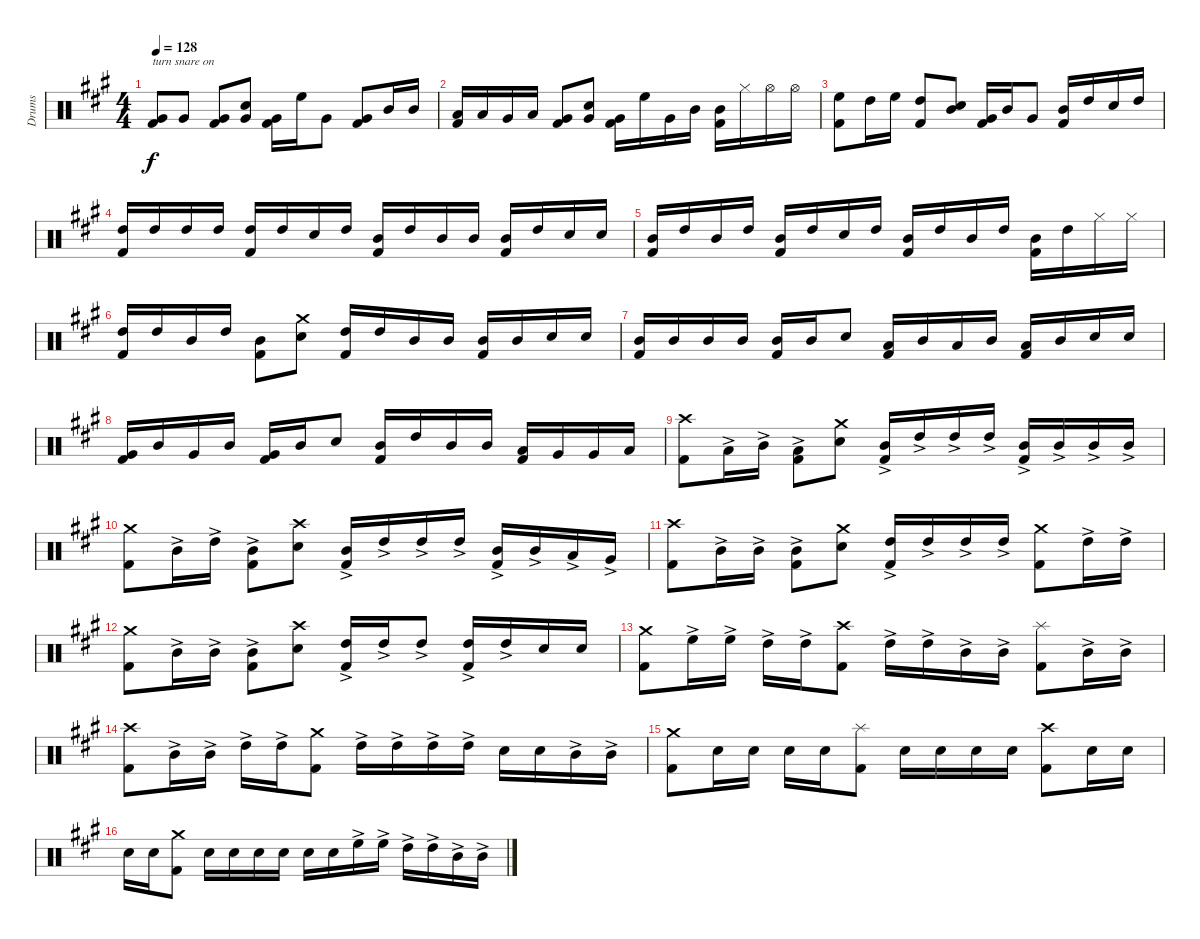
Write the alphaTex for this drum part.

\defaultSystemsLayout 4
\bracketExtendMode groupsimilarinstruments
\otherSystemsTrackNameOrientation horizontal
\track ("Drumkit" "Drums") {multiBarRest instrument percussion}
\staff {score}
\articulation defaults
\ts (4 4)
\tempo 128
\clef neutral
\ks a
("Very Low Tom (hit)"{acc forcenatural} "Kick (hit) 2"{acc forcenatural}).8{txt "turn snare on" dy f} "Very Low Tom (hit)"{acc forcenatural}.8 ("Very Low Tom (hit)"{acc forcenatural} "Kick (hit) 2"{acc forcenatural}).8 ("Very Low Tom (hit)"{acc forcenatural} "Snare (hit) 2"{acc forcenatural}).8 ("Kick (hit) 2"{acc forcenatural} "Very Low Tom (hit)"{acc forcenatural}).16 "High Floor Tom (hit)"{acc forcenatural}.16 "Very Low Tom (hit)"{acc forcenatural}.8 ("Very Low Tom (hit)"{acc forcenatural} "Kick (hit) 2"{acc forcenatural}).8 "Mid Tom (hit)"{acc forcenatural}.16 "Mid Tom (hit)"{acc forcenatural}.16 |
("Low Tom (hit)"{acc forcenatural} "Kick (hit) 2"{acc forcenatural}).16 "Low Tom (hit)"{acc forcenatural}.16 "Very Low Tom (hit)"{acc forcenatural}.16 "Low Tom (hit)"{acc forcenatural}.16 ("Very Low Tom (hit)"{acc forcenatural} "Kick (hit) 2"{acc forcenatural}).8 ("Snare (hit) 2"{acc forcenatural} "Very Low Tom (hit)"{acc forcenatural}).8 ("Very Low Tom (hit)"{acc forcenatural} "Kick (hit) 2"{acc forcenatural}).16 "High Floor Tom (hit)"{acc forcenatural}.16 "Very Low Tom (hit)"{acc forcenatural}.16 "Mid Tom (hit)"{acc forcenatural}.16 ("Mid Tom (hit)"{acc forcenatural} "Kick (hit) 2"{acc forcenatural}).16 "Hi-Hat (closed)"{acc forcenatural}.16 "Hi-Hat (open)"{acc forcenatural}.16 "Hi-Hat (open)"{acc forcenatural}.16 |
("High Floor Tom (hit)"{acc forcenatural} "Kick (hit) 2"{acc forcenatural}).8 "High Tom (hit)"{acc forcenatural}.16 "High Floor Tom (hit)"{acc forcenatural}.16 ("High Tom (hit)"{acc forcenatural} "Kick (hit) 2"{acc forcenatural}).8 ("Snare (hit) 2"{acc forcenatural} "Mid Tom (hit)"{acc forcenatural}).8 ("Very Low Tom (hit)"{acc forcenatural} "Kick (hit) 2"{acc forcenatural}).16 "Mid Tom (hit)"{acc forcenatural}.16 "Very Low Tom (hit)"{acc forcenatural}.8 ("Mid Tom (hit)"{acc forcenatural} "Kick (hit) 2"{acc forcenatural}).16 "High Tom (hit)"{acc forcenatural}.16 "Snare (hit) 2"{acc forcenatural}.16 "High Tom (hit)"{acc forcenatural}.16 |
("High Tom (hit)"{acc forcenatural} "Kick (hit) 2"{acc forcenatural}).16 "High Tom (hit)"{acc forcenatural}.16 "High Tom (hit)"{acc forcenatural}.16 "High Tom (hit)"{acc forcenatural}.16 ("High Tom (hit)"{acc forcenatural} "Kick (hit) 2"{acc forcenatural}).16 "High Tom (hit)"{acc forcenatural}.16 "Snare (hit) 2"{acc forcenatural}.16 "High Tom (hit)"{acc forcenatural}.16 ("Mid Tom (hit)"{acc forcenatural} "Kick (hit) 2"{acc forcenatural}).16 "High Tom (hit)"{acc forcenatural}.16 "Mid Tom (hit)"{acc forcenatural}.16 "Mid Tom (hit)"{acc forcenatural}.16 ("Mid Tom (hit)"{acc forcenatural} "Kick (hit) 2"{acc forcenatural}).16 "High Tom (hit)"{acc forcenatural}.16 "Snare (hit) 2"{acc forcenatural}.16 "Snare (hit) 2"{acc forcenatural}.16 |
("Mid Tom (hit)"{acc forcenatural} "Kick (hit) 2"{acc forcenatural}).16 "High Tom (hit)"{acc forcenatural}.16 "Mid Tom (hit)"{acc forcenatural}.16 "High Tom (hit)"{acc forcenatural}.16 ("Mid Tom (hit)"{acc forcenatural} "Kick (hit) 2"{acc forcenatural}).16 "High Tom (hit)"{acc forcenatural}.16 "Snare (hit) 2"{acc forcenatural}.16 "High Tom (hit)"{acc forcenatural}.16 ("Mid Tom (hit)"{acc forcenatural} "Kick (hit) 2"{acc forcenatural}).16 "High Tom (hit)"{acc forcenatural}.16 "Mid Tom (hit)"{acc forcenatural}.16 "High Tom (hit)"{acc forcenatural}.16 ("Mid Tom (hit)"{acc forcenatural} "Kick (hit) 2"{acc forcenatural}).16 "High Tom (hit)"{acc forcenatural}.16 "Hi-Hat (closed)"{acc forcenatural}.16 "Hi-Hat (closed)"{acc forcenatural}.16 |
("High Tom (hit)"{acc forcenatural} "Kick (hit) 2"{acc forcenatural}).16 "High Tom (hit)"{acc forcenatural}.16 "Mid Tom (hit)"{acc forcenatural}.16 "High Tom (hit)"{acc forcenatural}.16 ("Mid Tom (hit)"{acc forcenatural} "Kick (hit) 2"{acc forcenatural}).8 ("Snare (hit) 2"{acc forcenatural} "Crash medium (hit)"{acc forcenatural}).8 ("High Tom (hit)"{acc forcenatural} "Kick (hit) 2"{acc forcenatural}).16 "High Tom (hit)"{acc forcenatural}.16 "Mid Tom (hit)"{acc forcenatural}.16 "Mid Tom (hit)"{acc forcenatural}.16 ("Mid Tom (hit)"{acc forcenatural} "Kick (hit) 2"{acc forcenatural}).16 "Mid Tom (hit)"{acc forcenatural}.16 "Snare (hit) 2"{acc forcenatural}.16 "Snare (hit) 2"{acc forcenatural}.16 |
("Mid Tom (hit)"{acc forcenatural} "Kick (hit) 2"{acc forcenatural}).16 "Mid Tom (hit)"{acc forcenatural}.16 "Mid Tom (hit)"{acc forcenatural}.16 "Mid Tom (hit)"{acc forcenatural}.16 ("Mid Tom (hit)"{acc forcenatural} "Kick (hit) 2"{acc forcenatural}).16 "Mid Tom (hit)"{acc forcenatural}.16 "Snare (hit) 2"{acc forcenatural}.8 ("Low Tom (hit)"{acc forcenatural} "Kick (hit) 2"{acc forcenatural}).16 "Mid Tom (hit)"{acc forcenatural}.16 "Low Tom (hit)"{acc forcenatural}.16 "Mid Tom (hit)"{acc forcenatural}.16 ("Low Tom (hit)"{acc forcenatural} "Kick (hit) 2"{acc forcenatural}).16 "Mid Tom (hit)"{acc forcenatural}.16 "Snare (hit) 2"{acc forcenatural}.16 "Snare (hit) 2"{acc forcenatural}.16 |
("Very Low Tom (hit)"{acc forcenatural} "Kick (hit) 2"{acc forcenatural}).16 "Mid Tom (hit)"{acc forcenatural}.16 "Very Low Tom (hit)"{acc forcenatural}.16 "Mid Tom (hit)"{acc forcenatural}.16 ("Very Low Tom (hit)"{acc forcenatural} "Kick (hit) 2"{acc forcenatural}).16 "Mid Tom (hit)"{acc forcenatural}.16 "Snare (hit) 2"{acc forcenatural}.8 ("Mid Tom (hit)"{acc forcenatural} "Kick (hit) 2"{acc forcenatural}).16 "High Tom (hit)"{acc forcenatural}.16 "Mid Tom (hit)"{acc forcenatural}.16 "Mid Tom (hit)"{acc forcenatural}.16 ("Low Tom (hit)"{acc forcenatural} "Kick (hit) 2"{acc forcenatural}).16 "Very Low Tom (hit)"{acc forcenatural}.16 "Very Low Tom (hit)"{acc forcenatural}.16 "Low Tom (hit)"{acc forcenatural}.16 |
("Crash high (hit)"{acc forcenatural} "Kick (hit) 2"{acc forcenatural}).8 "Low Tom (hit)"{ac acc forcenatural}.16 "Mid Tom (hit)"{ac acc forcenatural}.16 ("Low Tom (hit)"{ac acc forcenatural} "Kick (hit) 2"{acc forcenatural}).8 ("Snare (hit) 2"{acc forcenatural} "Crash medium (hit)"{acc forcenatural}).8 ("Mid Tom (hit)"{ac acc forcenatural} "Kick (hit) 2"{acc forcenatural}).16 "High Tom (hit)"{ac acc forcenatural}.16 "High Tom (hit)"{ac acc forcenatural}.16 "High Tom (hit)"{ac acc forcenatural}.16 ("Mid Tom (hit)"{ac acc forcenatural} "Kick (hit) 2"{acc forcenatural}).16 "Mid Tom (hit)"{ac acc forcenatural}.16 "Mid Tom (hit)"{ac acc forcenatural}.16 "Mid Tom (hit)"{ac acc forcenatural}.16 |
("Crash medium (hit)"{acc forcenatural} "Kick (hit) 2"{acc forcenatural}).8 "Mid Tom (hit)"{ac acc forcenatural}.16 "High Tom (hit)"{ac acc forcenatural}.16 ("Mid Tom (hit)"{ac acc forcenatural} "Kick (hit) 2"{acc forcenatural}).8 ("Snare (hit) 2"{acc forcenatural} "Crash high (hit)"{acc forcenatural}).8 ("Mid Tom (hit)"{ac acc forcenatural} "Kick (hit) 2"{acc forcenatural}).16 "High Tom (hit)"{ac acc forcenatural}.16 "High Tom (hit)"{ac acc forcenatural}.16 "High Tom (hit)"{ac acc forcenatural}.16 ("Mid Tom (hit)"{ac acc forcenatural} "Kick (hit) 2"{acc forcenatural}).16 "Mid Tom (hit)"{ac acc forcenatural}.16 "Low Tom (hit)"{ac acc forcenatural}.16 "Very Low Tom (hit)"{ac acc forcenatural}.16 |
("Crash high (hit)"{acc forcenatural} "Kick (hit) 2"{acc forcenatural}).8 "Mid Tom (hit)"{ac acc forcenatural}.16 "Mid Tom (hit)"{ac acc forcenatural}.16 ("Mid Tom (hit)"{ac acc forcenatural} "Kick (hit) 2"{acc forcenatural}).8 ("Snare (hit) 2"{acc forcenatural} "Crash medium (hit)"{acc forcenatural}).8 ("High Tom (hit)"{ac acc forcenatural} "Kick (hit) 2"{acc forcenatural}).16 "High Tom (hit)"{ac acc forcenatural}.16 "High Tom (hit)"{ac acc forcenatural}.16 "High Tom (hit)"{ac acc forcenatural}.16 ("Crash medium (hit)"{acc forcenatural} "Kick (hit) 2"{acc forcenatural}).8 "High Tom (hit)"{ac acc forcenatural}.16 "High Tom (hit)"{ac acc forcenatural}.16 |
("Crash medium (hit)"{acc forcenatural} "Kick (hit) 2"{acc forcenatural}).8 "Mid Tom (hit)"{ac acc forcenatural}.16 "Mid Tom (hit)"{ac acc forcenatural}.16 ("Mid Tom (hit)"{ac acc forcenatural} "Kick (hit) 2"{acc forcenatural}).8 ("Snare (hit) 2"{acc forcenatural} "Crash high (hit)"{acc forcenatural}).8 ("High Tom (hit)"{ac acc forcenatural} "Kick (hit) 2"{acc forcenatural}).16 "High Tom (hit)"{ac acc forcenatural}.16 "High Tom (hit)"{ac acc forcenatural}.8 ("High Tom (hit)"{ac acc forcenatural} "Kick (hit) 2"{acc forcenatural}).16 "High Tom (hit)"{ac acc forcenatural}.16 "Snare (hit) 2"{acc forcenatural}.16 "Snare (hit) 2"{acc forcenatural}.16 |
("Crash medium (hit)"{acc forcenatural} "Kick (hit) 2"{acc forcenatural}).8 "High Floor Tom (hit)"{ac acc forcenatural}.16 "High Floor Tom (hit)"{ac acc forcenatural}.16 "High Tom (hit)"{ac acc forcenatural}.16 "High Tom (hit)"{ac acc forcenatural}.16 ("Crash high (hit)"{acc forcenatural} "Kick (hit) 2"{acc forcenatural}).8 "High Tom (hit)"{ac acc forcenatural}.16 "High Tom (hit)"{ac acc forcenatural}.16 "Mid Tom (hit)"{ac acc forcenatural}.16 "Mid Tom (hit)"{ac acc forcenatural}.16 ("Splash (hit)"{acc forcenatural} "Kick (hit) 2"{acc forcenatural}).8 "Mid Tom (hit)"{ac acc forcenatural}.16 "Mid Tom (hit)"{ac acc forcenatural}.16 |
("Crash high (hit)"{acc forcenatural} "Kick (hit) 2"{acc forcenatural}).8 "Mid Tom (hit)"{ac acc forcenatural}.16 "Mid Tom (hit)"{ac acc forcenatural}.16 "High Tom (hit)"{ac acc forcenatural}.16 "High Tom (hit)"{ac acc forcenatural}.16 ("Crash medium (hit)"{acc forcenatural} "Kick (hit) 2"{acc forcenatural}).8 "High Tom (hit)"{ac acc forcenatural}.16 "High Tom (hit)"{ac acc forcenatural}.16 "High Tom (hit)"{ac acc forcenatural}.16 "High Tom (hit)"{ac acc forcenatural}.16 "Snare (hit) 2"{acc forcenatural}.16 "Snare (hit) 2"{acc forcenatural}.16 "Mid Tom (hit)"{ac acc forcenatural}.16 "Mid Tom (hit)"{ac acc forcenatural}.16 |
("Kick (hit) 2"{acc forcenatural} "Crash medium (hit)"{acc forcenatural}).8 "Snare (hit) 2"{acc forcenatural}.16 "Snare (hit) 2"{acc forcenatural}.16 "Snare (hit) 2"{acc forcenatural}.16 "Snare (hit) 2"{acc forcenatural}.16 ("Splash (hit)"{acc forcenatural} "Kick (hit) 2"{acc forcenatural}).8 "Snare (hit) 2"{acc forcenatural}.16 "Snare (hit) 2"{acc forcenatural}.16 "Snare (hit) 2"{acc forcenatural}.16 "Snare (hit) 2"{acc forcenatural}.16 ("Crash high (hit)"{acc forcenatural} "Kick (hit) 2"{acc forcenatural}).8 "Snare (hit) 2"{acc forcenatural}.16 "Snare (hit) 2"{acc forcenatural}.16 |
"Snare (hit) 2"{acc forcenatural}.16 "Snare (hit) 2"{acc forcenatural}.16 ("Crash medium (hit)"{acc forcenatural} "Kick (hit) 2"{acc forcenatural}).8 "Snare (hit) 2"{acc forcenatural}.16 "Snare (hit) 2"{acc forcenatural}.16 "Snare (hit) 2"{acc forcenatural}.16 "Snare (hit) 2"{acc forcenatural}.16 "Snare (hit) 2"{acc forcenatural}.16 "Snare (hit) 2"{acc forcenatural}.16 "High Floor Tom (hit)"{ac acc forcenatural}.16 "High Floor Tom (hit)"{ac acc forcenatural}.16 "High Tom (hit)"{ac acc forcenatural}.16 "High Tom (hit)"{ac acc forcenatural}.16 "Mid Tom (hit)"{ac acc forcenatural}.16 "Mid Tom (hit)"{ac acc forcenatural}.16
